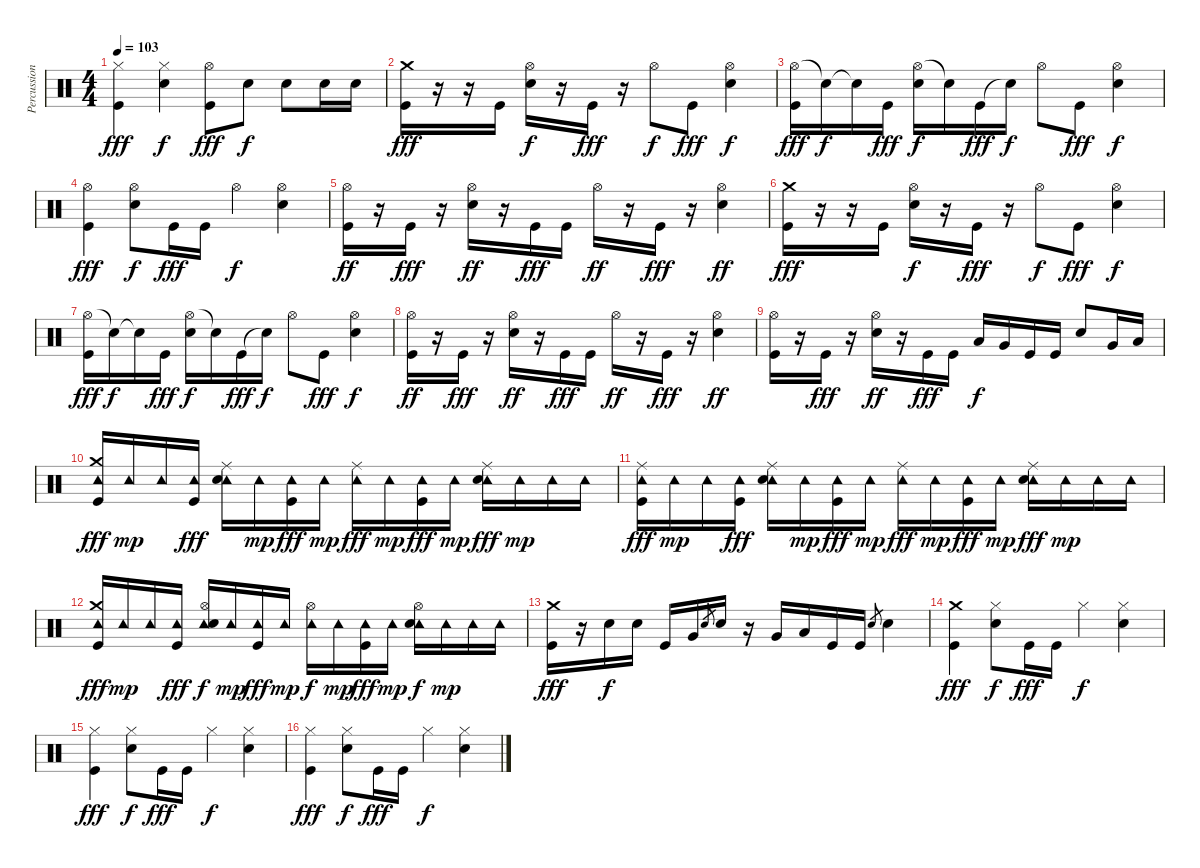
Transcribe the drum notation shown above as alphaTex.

\track ("Percussion" "Percussion") {instrument percussion}
\staff {score}
\articulation defaults
\ts (4 4)
\tempo 103
\clef neutral
\ks c
("Hi-Hat (closed)" "Kick (hit)").4{dy fff} ("Hi-Hat (closed)" "Electric Snare (hit)").4{dy f} ("Hi-Hat (open)" "Kick (hit)").8{dy fff} "Electric Snare (hit)".8{dy f} "Electric Snare (hit)".8 "Electric Snare (hit)".16 "Electric Snare (hit)".16 |
("Crash medium (hit)" "Kick (hit)").16{dy fff} r.16 r.16 "Kick (hit)".16 ("Hi-Hat (open)" "Electric Snare (hit)").16{dy f} r.16 "Kick (hit)".16{dy fff} r.16 "Hi-Hat (open)".8{dy f} "Kick (hit)".8{dy fff} ("Hi-Hat (open)" "Electric Snare (hit)").4{dy f} |
("Hi-Hat (open)" "Kick (hit)").16{dy fff} "Snare (hit)"{t}.16{dy f} "Snare (hit)"{t}.16 "Kick (hit)".16{dy fff} ("Hi-Hat (open)" "Electric Snare (hit)").16{dy f} "Snare (hit)"{t}.16 "Kick (hit)".16{dy fff} "Snare (hit)"{t}.16{dy f} "Hi-Hat (open)".8 "Kick (hit)".8{dy fff} ("Hi-Hat (open)" "Electric Snare (hit)").4{dy f} |
("Hi-Hat (open)" "Kick (hit)").4{dy fff} ("Hi-Hat (open)" "Electric Snare (hit)").8{dy f} "Kick (hit)".16{dy fff} "Kick (hit)".16 "Hi-Hat (open)".4{dy f} ("Hi-Hat (open)" "Electric Snare (hit)").4 |
("Kick (hit)" "Hi-Hat (open)").16{dy ff} r.16 "Kick (hit)".16{dy fff} r.16 ("Electric Snare (hit)" "Hi-Hat (open)").16{dy ff} r.16 "Kick (hit)".16{dy fff} "Kick (hit)".16 "Hi-Hat (open)".16{dy ff} r.16 "Kick (hit)".16{dy fff} r.16 ("Electric Snare (hit)" "Hi-Hat (open)").4{dy ff} |
("Crash medium (hit)" "Kick (hit)").16{dy fff} r.16 r.16 "Kick (hit)".16 ("Hi-Hat (open)" "Electric Snare (hit)").16{dy f} r.16 "Kick (hit)".16{dy fff} r.16 "Hi-Hat (open)".8{dy f} "Kick (hit)".8{dy fff} ("Hi-Hat (open)" "Electric Snare (hit)").4{dy f} |
("Hi-Hat (open)" "Kick (hit)").16{dy fff} "Snare (hit)"{t}.16{dy f} "Snare (hit)"{t}.16 "Kick (hit)".16{dy fff} ("Hi-Hat (open)" "Electric Snare (hit)").16{dy f} "Snare (hit)"{t}.16 "Kick (hit)".16{dy fff} "Snare (hit)"{t}.16{dy f} "Hi-Hat (open)".8 "Kick (hit)".8{dy fff} ("Hi-Hat (open)" "Electric Snare (hit)").4{dy f} |
("Kick (hit)" "Hi-Hat (open)").16{dy ff} r.16 "Kick (hit)".16{dy fff} r.16 ("Electric Snare (hit)" "Hi-Hat (open)").16{dy ff} r.16 "Kick (hit)".16{dy fff} "Kick (hit)".16 "Hi-Hat (open)".16{dy ff} r.16 "Kick (hit)".16{dy fff} r.16 ("Electric Snare (hit)" "Hi-Hat (open)").4{dy ff} |
("Kick (hit)" "Hi-Hat (open)").16 r.16 "Kick (hit)".16{dy fff} r.16 ("Electric Snare (hit)" "Hi-Hat (open)").16{dy ff} r.16 "Kick (hit)".16{dy fff} "Kick (hit)".16 "Low Tom (hit)".16{dy f} "Very Low Tom (hit)".16 "Kick (hit)".16 "Kick (hit)".16 "Electric Snare (hit)".8 "Very Low Tom (hit)".16 "Low Floor Tom (hit)".16 |
("Tambourine (hit)" "Kick (hit)" "Crash medium (hit)").16{dy fff} "Tambourine (hit)".16{dy mp} "Tambourine (hit)".16 ("Tambourine (hit)" "Kick (hit)").16{dy fff} ("Tambourine (hit)" "Electric Snare (hit)" "Ride (middle)").16 "Tambourine (hit)".16{dy mp} ("Tambourine (hit)" "Kick (hit)").16{dy fff} "Tambourine (hit)".16{dy mp} ("Tambourine (hit)" "Ride (middle)").16{dy fff} "Tambourine (hit)".16{dy mp} ("Tambourine (hit)" "Kick (hit)").16{dy fff} "Tambourine (hit)".16{dy mp} ("Tambourine (hit)" "Electric Snare (hit)" "Ride (middle)").16{dy fff} "Tambourine (hit)".16{dy mp} "Tambourine (hit)".16 "Tambourine (hit)".16 |
("Tambourine (hit)" "Kick (hit)" "Ride (middle)").16{dy fff} "Tambourine (hit)".16{dy mp} "Tambourine (hit)".16 ("Tambourine (hit)" "Kick (hit)").16{dy fff} ("Tambourine (hit)" "Electric Snare (hit)" "Ride (middle)").16 "Tambourine (hit)".16{dy mp} ("Tambourine (hit)" "Kick (hit)").16{dy fff} "Tambourine (hit)".16{dy mp} ("Tambourine (hit)" "Ride (middle)").16{dy fff} "Tambourine (hit)".16{dy mp} ("Tambourine (hit)" "Kick (hit)").16{dy fff} "Tambourine (hit)".16{dy mp} ("Tambourine (hit)" "Electric Snare (hit)" "Ride (middle)").16{dy fff} "Tambourine (hit)".16{dy mp} "Tambourine (hit)".16 "Tambourine (hit)".16 |
("Tambourine (hit)" "Kick (hit)" "Crash medium (hit)").16{dy fff} "Tambourine (hit)".16{dy mp} "Tambourine (hit)".16 ("Tambourine (hit)" "Kick (hit)").16{dy fff} ("Tambourine (hit)" "Electric Snare (hit)" "Hi-Hat (open)").16{dy f} "Tambourine (hit)".16{dy mp} ("Tambourine (hit)" "Kick (hit)").16{dy fff} "Tambourine (hit)".16{dy mp} ("Tambourine (hit)" "Hi-Hat (open)").16{dy f} "Tambourine (hit)".16{dy mp} ("Tambourine (hit)" "Kick (hit)").16{dy fff} "Tambourine (hit)".16{dy mp} ("Tambourine (hit)" "Electric Snare (hit)" "Hi-Hat (open)").16{dy f} "Tambourine (hit)".16{dy mp} "Tambourine (hit)".16 "Tambourine (hit)".16 |
("Kick (hit)" "Crash medium (hit)").16{dy fff} r.16 "Electric Snare (hit)".16{dy f} "Electric Snare (hit)".16 "Kick (hit)".16 "Very Low Tom (hit)".16 "Electric Snare (hit)".8{gr} "Electric Snare (hit)".16 r.16 "Very Low Tom (hit)".16 "Low Floor Tom (hit)".16 "Kick (hit)".16 "Kick (hit)".16 "Electric Snare (hit)".8{gr} "Electric Snare (hit)".4 |
("Crash medium (hit)" "Kick (hit)").4{dy fff} ("Hi-Hat (closed)" "Electric Snare (hit)").8{dy f} "Kick (hit)".16{dy fff} "Kick (hit)".16 "Hi-Hat (closed)".4{dy f} ("Hi-Hat (closed)" "Electric Snare (hit)").4 |
("Hi-Hat (closed)" "Kick (hit)").4{dy fff} ("Hi-Hat (closed)" "Electric Snare (hit)").8{dy f} "Kick (hit)".16{dy fff} "Kick (hit)".16 "Hi-Hat (closed)".4{dy f} ("Hi-Hat (closed)" "Electric Snare (hit)").4 |
("Hi-Hat (closed)" "Kick (hit)").4{dy fff} ("Hi-Hat (closed)" "Electric Snare (hit)").8{dy f} "Kick (hit)".16{dy fff} "Kick (hit)".16 "Hi-Hat (closed)".4{dy f} ("Hi-Hat (closed)" "Electric Snare (hit)").4
